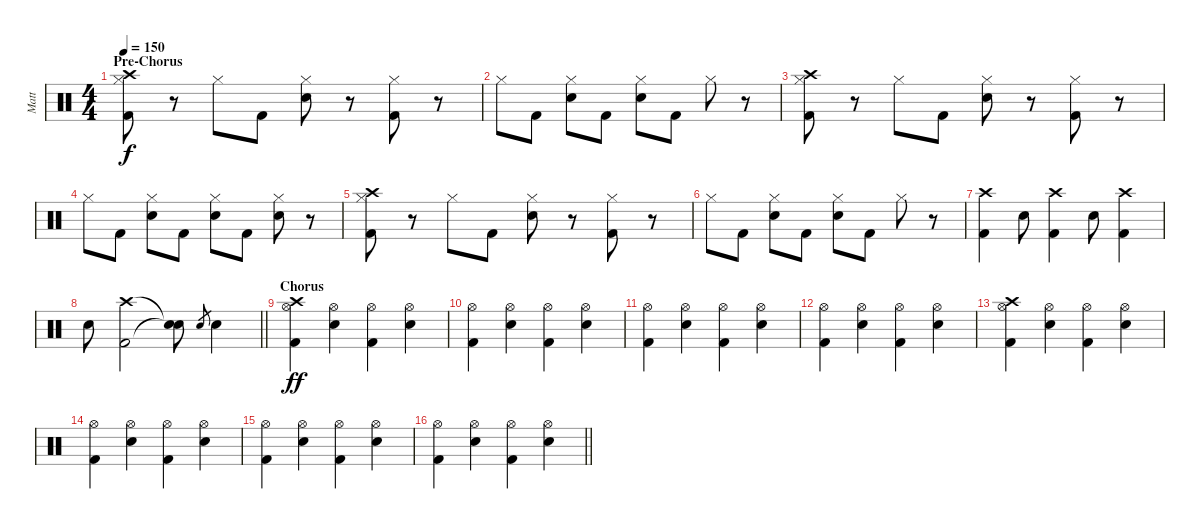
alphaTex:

\track ("Matt" "Matt") {instrument percussion}
\staff {score}
\articulation defaults
\ts (4 4)
\section ("" "Pre-Chorus")
\tempo 150
\clef neutral
\ks c
("Hi-Hat (closed)" "Kick (hit) 2" "Crash high (hit)").8{dy f} r.8 "Hi-Hat (closed)".8 "Kick (hit) 2".8 ("Hi-Hat (closed)" "Snare (hit) 2").8 r.8 ("Hi-Hat (closed)" "Kick (hit) 2").8 r.8 |
"Hi-Hat (closed)".8 "Kick (hit) 2".8 ("Hi-Hat (closed)" "Snare (hit) 2").8 "Kick (hit) 2".8 ("Hi-Hat (closed)" "Snare (hit) 2").8 "Kick (hit) 2".8 "Hi-Hat (closed)".8 r.8 |
("Hi-Hat (closed)" "Kick (hit) 2" "Crash high (hit)").8 r.8 "Hi-Hat (closed)".8 "Kick (hit) 2".8 ("Hi-Hat (closed)" "Snare (hit) 2").8 r.8 ("Hi-Hat (closed)" "Kick (hit) 2").8 r.8 |
"Hi-Hat (closed)".8 "Kick (hit) 2".8 ("Hi-Hat (closed)" "Snare (hit) 2").8 "Kick (hit) 2".8 ("Hi-Hat (closed)" "Snare (hit) 2").8 "Kick (hit) 2".8 ("Hi-Hat (closed)" "Snare (hit) 2").8 r.8 |
("Hi-Hat (closed)" "Kick (hit) 2" "Crash high (hit)").8 r.8 "Hi-Hat (closed)".8 "Kick (hit) 2".8 ("Hi-Hat (closed)" "Snare (hit) 2").8 r.8 ("Hi-Hat (closed)" "Kick (hit) 2").8 r.8 |
"Hi-Hat (closed)".8 "Kick (hit) 2".8 ("Hi-Hat (closed)" "Snare (hit) 2").8 "Kick (hit) 2".8 ("Hi-Hat (closed)" "Snare (hit) 2").8 "Kick (hit) 2".8 "Hi-Hat (closed)".8 r.8 |
("Kick (hit) 2" "Crash high (hit)").4 "Snare (hit) 2".8 ("Kick (hit) 2" "Crash high (hit)").4 "Snare (hit) 2".8 ("Kick (hit) 2" "Crash high (hit)").4 |
\barLineRight lightlight "Snare (hit) 2".8
("Kick (hit) 2" "Crash high (hit)").2 ("Snare (hit)"{t} "Snare (hit)"{t}).8 "Snare (hit) 2".8{gr} "Snare (hit) 2".4 |
\section ("" "Chorus")
("Hi-Hat (open)" "Kick (hit) 2" "Crash high (hit)").4{dy ff} ("Hi-Hat (open)" "Snare (hit) 2").4 ("Hi-Hat (open)" "Kick (hit) 2").4 ("Hi-Hat (open)" "Snare (hit) 2").4 |
("Hi-Hat (open)" "Kick (hit) 2").4 ("Hi-Hat (open)" "Snare (hit) 2").4 ("Hi-Hat (open)" "Kick (hit) 2").4 ("Hi-Hat (open)" "Snare (hit) 2").4 |
("Hi-Hat (open)" "Kick (hit) 2").4 ("Hi-Hat (open)" "Snare (hit) 2").4 ("Hi-Hat (open)" "Kick (hit) 2").4 ("Hi-Hat (open)" "Snare (hit) 2").4 |
("Hi-Hat (open)" "Kick (hit) 2").4 ("Hi-Hat (open)" "Snare (hit) 2").4 ("Hi-Hat (open)" "Kick (hit) 2").4 ("Hi-Hat (open)" "Snare (hit) 2").4 |
("Hi-Hat (open)" "Kick (hit) 2" "Crash high (hit)").4 ("Hi-Hat (open)" "Snare (hit) 2").4 ("Hi-Hat (open)" "Kick (hit) 2").4 ("Hi-Hat (open)" "Snare (hit) 2").4 |
("Hi-Hat (open)" "Kick (hit) 2").4 ("Hi-Hat (open)" "Snare (hit) 2").4 ("Hi-Hat (open)" "Kick (hit) 2").4 ("Hi-Hat (open)" "Snare (hit) 2").4 |
("Hi-Hat (open)" "Kick (hit) 2").4 ("Hi-Hat (open)" "Snare (hit) 2").4 ("Hi-Hat (open)" "Kick (hit) 2").4 ("Hi-Hat (open)" "Snare (hit) 2").4 |
\barLineRight lightlight
("Hi-Hat (open)" "Kick (hit) 2").4 ("Hi-Hat (open)" "Snare (hit) 2").4 ("Hi-Hat (open)" "Kick (hit) 2").4 ("Hi-Hat (open)" "Snare (hit) 2").4
